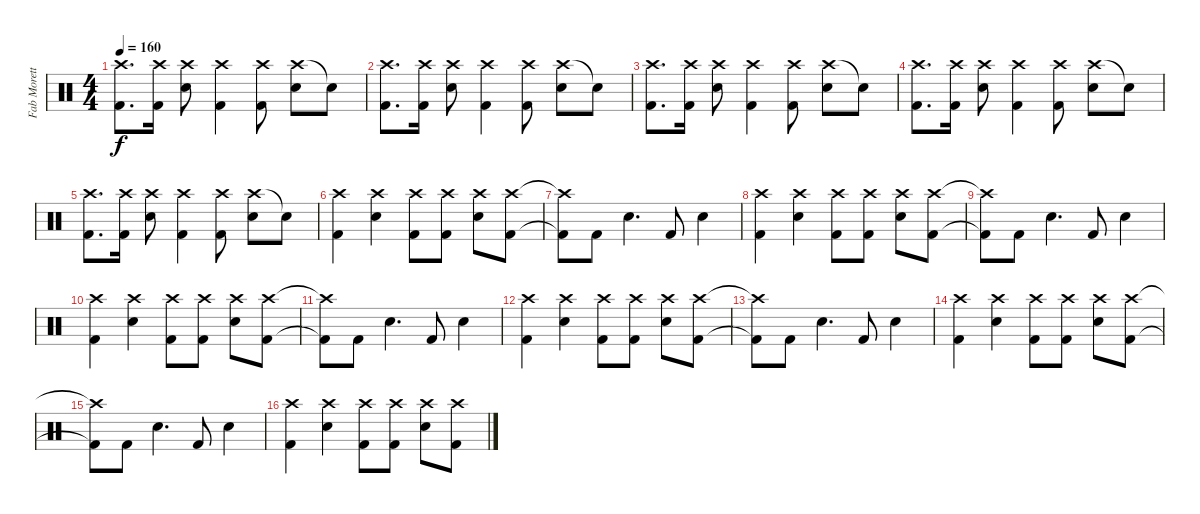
\track ("Fab Moretti " "Fab Morett") {instrument percussion}
\staff {score}
\articulation defaults
\ts (4 4)
\tempo 160
\clef neutral
\ks c
("Crash high (hit)" "Kick (hit) 2").8{d dy f} ("Crash high (hit)" "Kick (hit) 2").16 ("Crash high (hit)" "Electric Snare (hit)").8 ("Crash high (hit)" "Kick (hit) 2").4 ("Crash high (hit)" "Kick (hit) 2").8 ("Crash high (hit)" "Electric Snare (hit)").8 "Electric Snare (hit)"{t}.8 |
("Crash high (hit)" "Kick (hit) 2").8{d} ("Crash high (hit)" "Kick (hit) 2").16 ("Crash high (hit)" "Electric Snare (hit)").8 ("Crash high (hit)" "Kick (hit) 2").4 ("Crash high (hit)" "Kick (hit) 2").8 ("Crash high (hit)" "Electric Snare (hit)").8 "Electric Snare (hit)"{t}.8 |
("Crash high (hit)" "Kick (hit) 2").8{d} ("Crash high (hit)" "Kick (hit) 2").16 ("Crash high (hit)" "Electric Snare (hit)").8 ("Crash high (hit)" "Kick (hit) 2").4 ("Crash high (hit)" "Kick (hit) 2").8 ("Crash high (hit)" "Electric Snare (hit)").8 "Electric Snare (hit)"{t}.8 |
("Crash high (hit)" "Kick (hit) 2").8{d} ("Crash high (hit)" "Kick (hit) 2").16 ("Crash high (hit)" "Electric Snare (hit)").8 ("Crash high (hit)" "Kick (hit) 2").4 ("Crash high (hit)" "Kick (hit) 2").8 ("Crash high (hit)" "Electric Snare (hit)").8 "Electric Snare (hit)"{t}.8 |
("Crash high (hit)" "Kick (hit) 2").8{d} ("Crash high (hit)" "Kick (hit) 2").16 ("Crash high (hit)" "Electric Snare (hit)").8 ("Crash high (hit)" "Kick (hit) 2").4 ("Crash high (hit)" "Kick (hit) 2").8 ("Crash high (hit)" "Electric Snare (hit)").8 "Electric Snare (hit)"{t}.8 |
("Crash high (hit)" "Kick (hit) 2").4 ("Crash high (hit)" "Electric Snare (hit)").4 ("Crash high (hit)" "Kick (hit) 2").8 ("Crash high (hit)" "Kick (hit) 2").8 ("Crash high (hit)" "Electric Snare (hit)").8 ("Crash high (hit)" "Kick (hit) 2").8 |
("Crash high (hit)"{t} "Kick (hit) 2"{t}).8 "Kick (hit) 2".8 "Electric Snare (hit)".4{d} "Kick (hit) 2".8 "Electric Snare (hit)".4 |
("Crash high (hit)" "Kick (hit) 2").4 ("Crash high (hit)" "Electric Snare (hit)").4 ("Crash high (hit)" "Kick (hit) 2").8 ("Crash high (hit)" "Kick (hit) 2").8 ("Crash high (hit)" "Electric Snare (hit)").8 ("Crash high (hit)" "Kick (hit) 2").8 |
("Crash high (hit)"{t} "Kick (hit) 2"{t}).8 "Kick (hit) 2".8 "Electric Snare (hit)".4{d} "Kick (hit) 2".8 "Electric Snare (hit)".4 |
("Crash high (hit)" "Kick (hit) 2").4 ("Crash high (hit)" "Electric Snare (hit)").4 ("Crash high (hit)" "Kick (hit) 2").8 ("Crash high (hit)" "Kick (hit) 2").8 ("Crash high (hit)" "Electric Snare (hit)").8 ("Crash high (hit)" "Kick (hit) 2").8 |
("Crash high (hit)"{t} "Kick (hit) 2"{t}).8 "Kick (hit) 2".8 "Electric Snare (hit)".4{d} "Kick (hit) 2".8 "Electric Snare (hit)".4 |
("Crash high (hit)" "Kick (hit) 2").4 ("Crash high (hit)" "Electric Snare (hit)").4 ("Crash high (hit)" "Kick (hit) 2").8 ("Crash high (hit)" "Kick (hit) 2").8 ("Crash high (hit)" "Electric Snare (hit)").8 ("Crash high (hit)" "Kick (hit) 2").8 |
("Crash high (hit)"{t} "Kick (hit) 2"{t}).8 "Kick (hit) 2".8 "Electric Snare (hit)".4{d} "Kick (hit) 2".8 "Electric Snare (hit)".4 |
("Crash high (hit)" "Kick (hit) 2").4 ("Crash high (hit)" "Electric Snare (hit)").4 ("Crash high (hit)" "Kick (hit) 2").8 ("Crash high (hit)" "Kick (hit) 2").8 ("Crash high (hit)" "Electric Snare (hit)").8 ("Crash high (hit)" "Kick (hit) 2").8 |
("Crash high (hit)"{t} "Kick (hit) 2"{t}).8 "Kick (hit) 2".8 "Electric Snare (hit)".4{d} "Kick (hit) 2".8 "Electric Snare (hit)".4 |
("Crash high (hit)" "Kick (hit) 2").4 ("Crash high (hit)" "Electric Snare (hit)").4 ("Crash high (hit)" "Kick (hit) 2").8 ("Crash high (hit)" "Kick (hit) 2").8 ("Crash high (hit)" "Electric Snare (hit)").8 ("Crash high (hit)" "Kick (hit) 2").8
